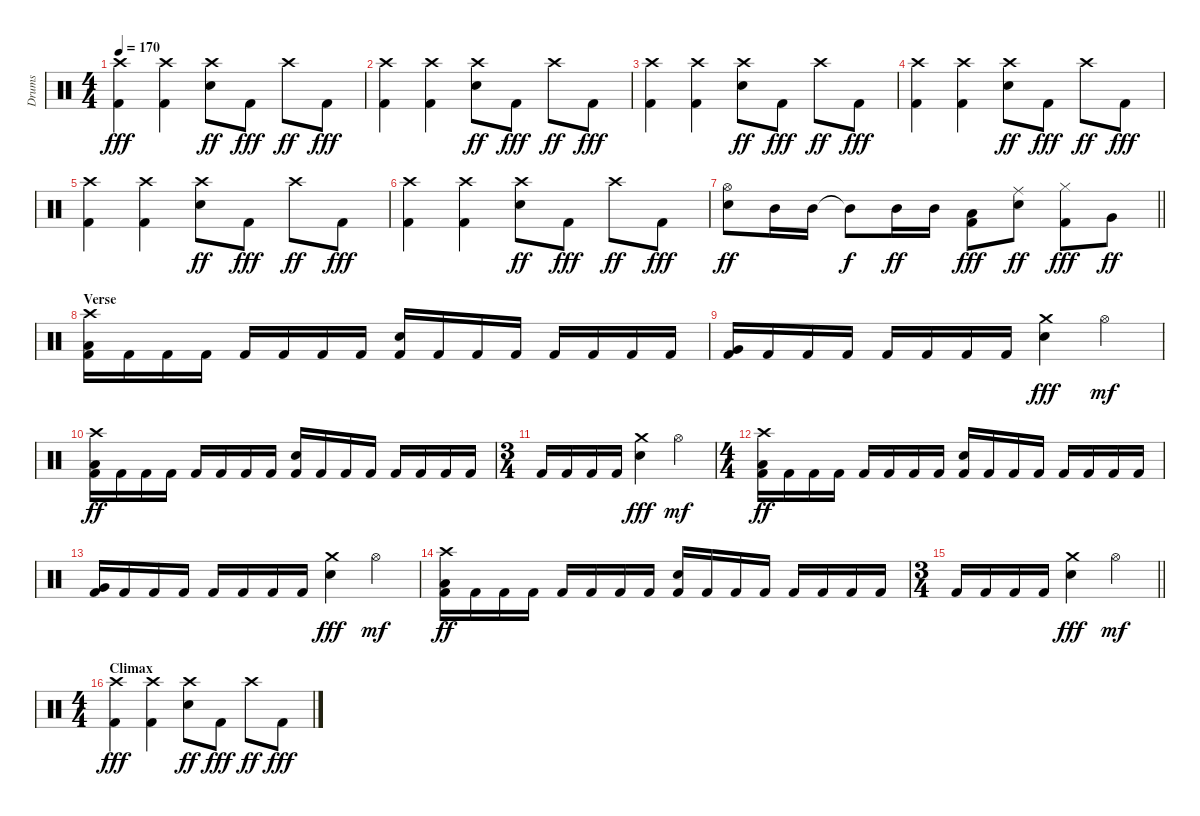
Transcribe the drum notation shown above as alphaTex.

\track ("Drums" "Drums") {instrument percussion}
\staff {score}
\articulation defaults
\ts (4 4)
\tempo 170
\clef neutral
\ks c
("Crash high (hit)" "Kick (hit) 2").4{dy fff} ("Crash high (hit)" "Kick (hit) 2").4 ("Crash high (hit)" "Snare (hit) 2").8{dy ff} "Kick (hit) 2".8{dy fff} "Crash high (hit)".8{dy ff} "Kick (hit) 2".8{dy fff} |
("Crash high (hit)" "Kick (hit) 2").4 ("Crash high (hit)" "Kick (hit) 2").4 ("Crash high (hit)" "Snare (hit) 2").8{dy ff} "Kick (hit) 2".8{dy fff} "Crash high (hit)".8{dy ff} "Kick (hit) 2".8{dy fff} |
("Crash high (hit)" "Kick (hit) 2").4 ("Crash high (hit)" "Kick (hit) 2").4 ("Crash high (hit)" "Snare (hit) 2").8{dy ff} "Kick (hit) 2".8{dy fff} "Crash high (hit)".8{dy ff} "Kick (hit) 2".8{dy fff} |
("Crash high (hit)" "Kick (hit) 2").4 ("Crash high (hit)" "Kick (hit) 2").4 ("Crash high (hit)" "Snare (hit) 2").8{dy ff} "Kick (hit) 2".8{dy fff} "Crash high (hit)".8{dy ff} "Kick (hit) 2".8{dy fff} |
("Crash high (hit)" "Kick (hit) 2").4 ("Crash high (hit)" "Kick (hit) 2").4 ("Crash high (hit)" "Snare (hit) 2").8{dy ff} "Kick (hit) 2".8{dy fff} "Crash high (hit)".8{dy ff} "Kick (hit) 2".8{dy fff} |
("Crash high (hit)" "Kick (hit) 2").4 ("Crash high (hit)" "Kick (hit) 2").4 ("Crash high (hit)" "Snare (hit) 2").8{dy ff} "Kick (hit) 2".8{dy fff} "Crash high (hit)".8{dy ff} "Kick (hit) 2".8{dy fff} |
\barLineRight lightlight
("Hi-Hat (open)" "Snare (hit) 2").8{dy ff} "Mid Tom (hit)".16 "Mid Tom (hit)".16 "Mid Tom (hit)"{t}.8{dy f} "Mid Tom (hit)".16{dy ff} "Mid Tom (hit)".16 ("Low Tom (hit)" "Kick (hit) 2").8{dy fff} ("Ride (middle)" "Snare (hit) 2").8{dy ff} ("Hi-Hat (closed)" "Kick (hit) 2").8{dy fff} "Very Low Tom (hit)".8{dy ff} |
\section ("" "Verse")
("Crash high (hit)" "Low Tom (hit)" "Kick (hit) 2").16 "Kick (hit) 2".16 "Kick (hit) 2".16 "Kick (hit) 2".16 "Kick (hit) 2".16 "Kick (hit) 2".16 "Kick (hit) 2".16 "Kick (hit) 2".16 ("Snare (hit) 2" "Kick (hit) 2").16 "Kick (hit) 2".16 "Kick (hit) 2".16 "Kick (hit) 2".16 "Kick (hit) 2".16 "Kick (hit) 2".16 "Kick (hit) 2".16 "Kick (hit) 2".16 |
("Very Low Tom (hit)" "Kick (hit) 2").16 "Kick (hit) 2".16 "Kick (hit) 2".16 "Kick (hit) 2".16 "Kick (hit) 2".16 "Kick (hit) 2".16 "Kick (hit) 2".16 "Kick (hit) 2".16 ("Crash medium (hit)" "Snare (hit) 2").4{dy fff} "Hi-Hat (open)".4{dy mf} |
("Crash high (hit)" "Low Tom (hit)" "Kick (hit) 2").16{dy ff} "Kick (hit) 2".16 "Kick (hit) 2".16 "Kick (hit) 2".16 "Kick (hit) 2".16 "Kick (hit) 2".16 "Kick (hit) 2".16 "Kick (hit) 2".16 ("Snare (hit) 2" "Kick (hit) 2").16 "Kick (hit) 2".16 "Kick (hit) 2".16 "Kick (hit) 2".16 "Kick (hit) 2".16 "Kick (hit) 2".16 "Kick (hit) 2".16 "Kick (hit) 2".16 |
\ts (3 4)
"Kick (hit) 2".16 "Kick (hit) 2".16 "Kick (hit) 2".16 "Kick (hit) 2".16 ("Crash medium (hit)" "Snare (hit) 2").4{dy fff} "Hi-Hat (open)".4{dy mf} |
\ts (4 4)
("Crash high (hit)" "Low Tom (hit)" "Kick (hit) 2").16{dy ff} "Kick (hit) 2".16 "Kick (hit) 2".16 "Kick (hit) 2".16 "Kick (hit) 2".16 "Kick (hit) 2".16 "Kick (hit) 2".16 "Kick (hit) 2".16 ("Snare (hit) 2" "Kick (hit) 2").16 "Kick (hit) 2".16 "Kick (hit) 2".16 "Kick (hit) 2".16 "Kick (hit) 2".16 "Kick (hit) 2".16 "Kick (hit) 2".16 "Kick (hit) 2".16 |
("Very Low Tom (hit)" "Kick (hit) 2").16 "Kick (hit) 2".16 "Kick (hit) 2".16 "Kick (hit) 2".16 "Kick (hit) 2".16 "Kick (hit) 2".16 "Kick (hit) 2".16 "Kick (hit) 2".16 ("Crash medium (hit)" "Snare (hit) 2").4{dy fff} "Hi-Hat (open)".4{dy mf} |
("Crash high (hit)" "Low Tom (hit)" "Kick (hit) 2").16{dy ff} "Kick (hit) 2".16 "Kick (hit) 2".16 "Kick (hit) 2".16 "Kick (hit) 2".16 "Kick (hit) 2".16 "Kick (hit) 2".16 "Kick (hit) 2".16 ("Snare (hit) 2" "Kick (hit) 2").16 "Kick (hit) 2".16 "Kick (hit) 2".16 "Kick (hit) 2".16 "Kick (hit) 2".16 "Kick (hit) 2".16 "Kick (hit) 2".16 "Kick (hit) 2".16 |
\ts (3 4)
\barLineRight lightlight "Kick (hit) 2".16 "Kick (hit) 2".16 "Kick (hit) 2".16 "Kick (hit) 2".16
("Crash medium (hit)" "Snare (hit) 2").4{dy fff} "Hi-Hat (open)".4{dy mf} |
\ts (4 4)
\section ("" "Climax")
("Crash high (hit)" "Kick (hit) 2").4{dy fff} ("Crash high (hit)" "Kick (hit) 2").4 ("Crash high (hit)" "Snare (hit) 2").8{dy ff} "Kick (hit) 2".8{dy fff} "Crash high (hit)".8{dy ff} "Kick (hit) 2".8{dy fff}
